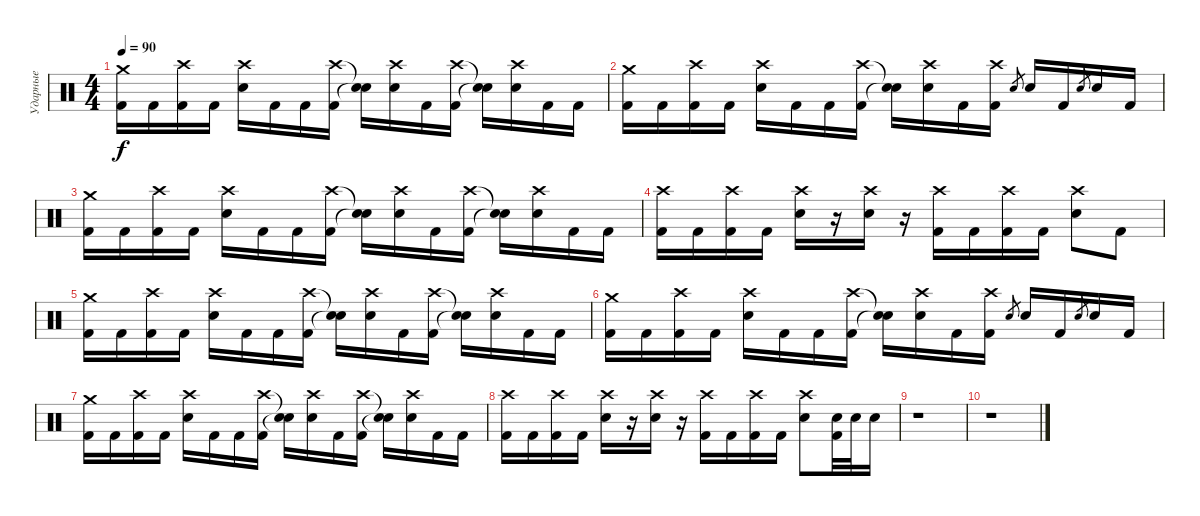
\track ("Ударные" "Ударные") {instrument percussion}
\staff {score}
\articulation defaults
\ts (4 4)
\tempo 90
\clef neutral
\ks c
("Crash medium (hit)" "Kick (hit) 2").16{dy f} "Kick (hit) 2".16 ("Crash high (hit)" "Kick (hit) 2").16 "Kick (hit) 2".16 ("Crash high (hit)" "Electric Snare (hit)").16 "Kick (hit) 2".16 "Kick (hit) 2".16 ("Crash high (hit)" "Kick (hit) 2").16 ("Snare (hit)"{t} "Snare (hit)"{t}).16 ("Crash high (hit)" "Electric Snare (hit)").16 "Kick (hit) 2".16 ("Crash high (hit)" "Kick (hit) 2").16 ("Snare (hit)"{t} "Snare (hit)"{t}).16 ("Crash high (hit)" "Electric Snare (hit)").16 "Kick (hit) 2".16 "Kick (hit) 2".16 |
("Crash medium (hit)" "Kick (hit) 2").16 "Kick (hit) 2".16 ("Crash high (hit)" "Kick (hit) 2").16 "Kick (hit) 2".16 ("Crash high (hit)" "Electric Snare (hit)").16 "Kick (hit) 2".16 "Kick (hit) 2".16 ("Crash high (hit)" "Kick (hit) 2").16 ("Snare (hit)"{t} "Snare (hit)"{t}).16 ("Crash high (hit)" "Electric Snare (hit)").16 "Kick (hit) 2".16 ("Crash high (hit)" "Kick (hit) 2").16 "Electric Snare (hit)".8{gr} "Electric Snare (hit)".16 "Kick (hit) 2".16 "Electric Snare (hit)".8{gr} "Electric Snare (hit)".16 "Kick (hit) 2".16 |
("Crash medium (hit)" "Kick (hit) 2").16 "Kick (hit) 2".16 ("Crash high (hit)" "Kick (hit) 2").16 "Kick (hit) 2".16 ("Crash high (hit)" "Electric Snare (hit)").16 "Kick (hit) 2".16 "Kick (hit) 2".16 ("Crash high (hit)" "Kick (hit) 2").16 ("Snare (hit)"{t} "Snare (hit)"{t}).16 ("Crash high (hit)" "Electric Snare (hit)").16 "Kick (hit) 2".16 ("Crash high (hit)" "Kick (hit) 2").16 ("Snare (hit)"{t} "Snare (hit)"{t}).16 ("Crash high (hit)" "Electric Snare (hit)").16 "Kick (hit) 2".16 "Kick (hit) 2".16 |
("Crash high (hit)" "Kick (hit) 2").16 "Kick (hit) 2".16 ("Crash high (hit)" "Kick (hit) 2").16 "Kick (hit) 2".16 ("Crash high (hit)" "Electric Snare (hit)").16 r.16 ("Crash high (hit)" "Electric Snare (hit)").16 r.16 ("Crash high (hit)" "Kick (hit) 2").16 "Kick (hit) 2".16 ("Crash high (hit)" "Kick (hit) 2").16 "Kick (hit) 2".16 ("Crash high (hit)" "Electric Snare (hit)").8 "Kick (hit) 2".8 |
("Crash medium (hit)" "Kick (hit) 2").16 "Kick (hit) 2".16 ("Crash high (hit)" "Kick (hit) 2").16 "Kick (hit) 2".16 ("Crash high (hit)" "Electric Snare (hit)").16 "Kick (hit) 2".16 "Kick (hit) 2".16 ("Crash high (hit)" "Kick (hit) 2").16 ("Snare (hit)"{t} "Snare (hit)"{t}).16 ("Crash high (hit)" "Electric Snare (hit)").16 "Kick (hit) 2".16 ("Crash high (hit)" "Kick (hit) 2").16 ("Snare (hit)"{t} "Snare (hit)"{t}).16 ("Crash high (hit)" "Electric Snare (hit)").16 "Kick (hit) 2".16 "Kick (hit) 2".16 |
("Crash medium (hit)" "Kick (hit) 2").16 "Kick (hit) 2".16 ("Crash high (hit)" "Kick (hit) 2").16 "Kick (hit) 2".16 ("Crash high (hit)" "Electric Snare (hit)").16 "Kick (hit) 2".16 "Kick (hit) 2".16 ("Crash high (hit)" "Kick (hit) 2").16 ("Snare (hit)"{t} "Snare (hit)"{t}).16 ("Crash high (hit)" "Electric Snare (hit)").16 "Kick (hit) 2".16 ("Crash high (hit)" "Kick (hit) 2").16 "Electric Snare (hit)".8{gr} "Electric Snare (hit)".16 "Kick (hit) 2".16 "Electric Snare (hit)".8{gr} "Electric Snare (hit)".16 "Kick (hit) 2".16 |
("Crash medium (hit)" "Kick (hit) 2").16 "Kick (hit) 2".16 ("Crash high (hit)" "Kick (hit) 2").16 "Kick (hit) 2".16 ("Crash high (hit)" "Electric Snare (hit)").16 "Kick (hit) 2".16 "Kick (hit) 2".16 ("Crash high (hit)" "Kick (hit) 2").16 ("Snare (hit)"{t} "Snare (hit)"{t}).16 ("Crash high (hit)" "Electric Snare (hit)").16 "Kick (hit) 2".16 ("Crash high (hit)" "Kick (hit) 2").16 ("Snare (hit)"{t} "Snare (hit)"{t}).16 ("Crash high (hit)" "Electric Snare (hit)").16 "Kick (hit) 2".16 "Kick (hit) 2".16 |
("Crash high (hit)" "Kick (hit) 2").16 "Kick (hit) 2".16 ("Crash high (hit)" "Kick (hit) 2").16 "Kick (hit) 2".16 ("Crash high (hit)" "Electric Snare (hit)").16 r.16 ("Crash high (hit)" "Electric Snare (hit)").16 r.16 ("Crash high (hit)" "Kick (hit) 2").16 "Kick (hit) 2".16 ("Crash high (hit)" "Kick (hit) 2").16 "Kick (hit) 2".16 ("Crash high (hit)" "Electric Snare (hit)").8 ("Electric Snare (hit)" "Kick (hit) 2").32 "Electric Snare (hit)".32 "Electric Snare (hit)".16 |
r.1 |
r.1
